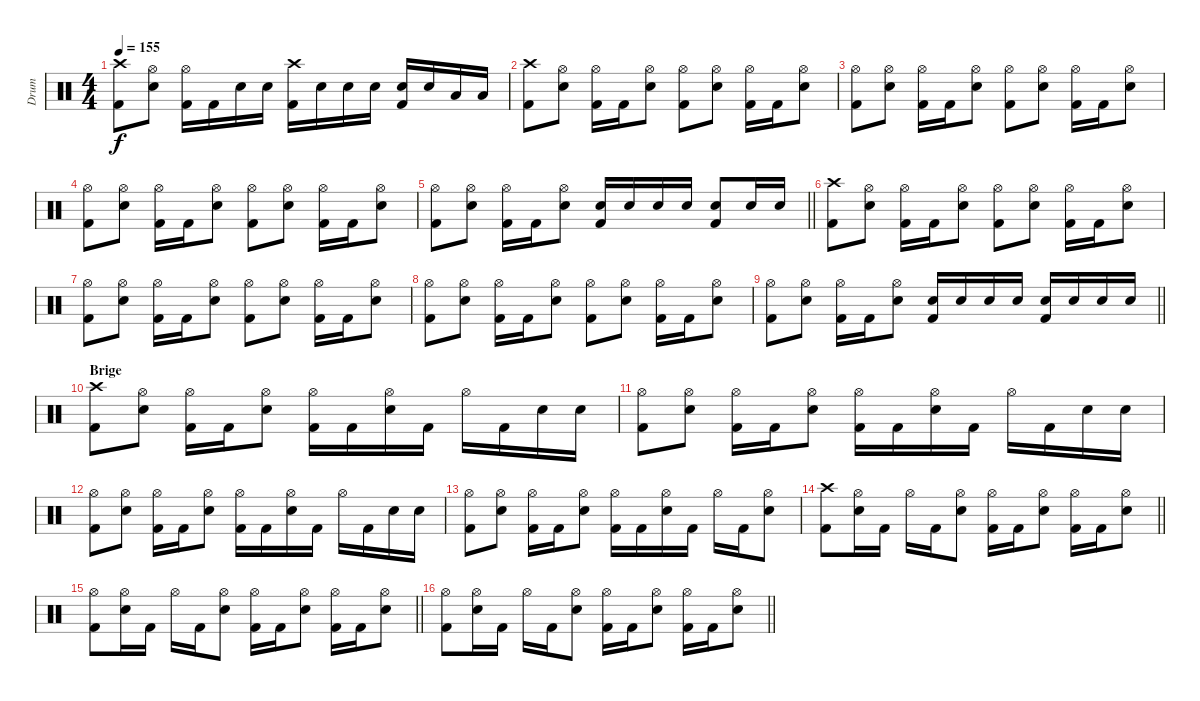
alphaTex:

\track ("Drum" "Drum") {solo instrument percussion}
\staff {score}
\articulation defaults
\ts (4 4)
\tempo 155
\clef neutral
\ks c
("Crash high (hit)" "Kick (hit) 2").8{dy f} ("Hi-Hat (open)" "Electric Snare (hit)").8 ("Kick (hit) 2" "Hi-Hat (open)").16 "Kick (hit) 2".16 "Electric Snare (hit)".16 "Electric Snare (hit)".16 ("Crash high (hit)" "Kick (hit) 2").16 "Electric Snare (hit)".16 "Electric Snare (hit)".16 "Electric Snare (hit)".16 ("Electric Snare (hit)" "Kick (hit) 2").16 "Electric Snare (hit)".16 "Low Tom (hit)".16 "Low Tom (hit)".16 |
("Crash high (hit)" "Kick (hit) 2").8 ("Hi-Hat (open)" "Electric Snare (hit)").8 ("Hi-Hat (open)" "Kick (hit) 2").16 "Kick (hit) 2".16 ("Hi-Hat (open)" "Electric Snare (hit)").8 ("Hi-Hat (open)" "Kick (hit) 2").8 ("Hi-Hat (open)" "Electric Snare (hit)").8 ("Kick (hit) 2" "Hi-Hat (open)").16 "Kick (hit) 2".16 ("Hi-Hat (open)" "Electric Snare (hit)").8 |
("Hi-Hat (open)" "Kick (hit) 2").8 ("Hi-Hat (open)" "Electric Snare (hit)").8 ("Hi-Hat (open)" "Kick (hit) 2").16 "Kick (hit) 2".16 ("Hi-Hat (open)" "Electric Snare (hit)").8 ("Hi-Hat (open)" "Kick (hit) 2").8 ("Hi-Hat (open)" "Electric Snare (hit)").8 ("Kick (hit) 2" "Hi-Hat (open)").16 "Kick (hit) 2".16 ("Hi-Hat (open)" "Electric Snare (hit)").8 |
("Hi-Hat (open)" "Kick (hit) 2").8 ("Hi-Hat (open)" "Electric Snare (hit)").8 ("Hi-Hat (open)" "Kick (hit) 2").16 "Kick (hit) 2".16 ("Hi-Hat (open)" "Electric Snare (hit)").8 ("Hi-Hat (open)" "Kick (hit) 2").8 ("Hi-Hat (open)" "Electric Snare (hit)").8 ("Kick (hit) 2" "Hi-Hat (open)").16 "Kick (hit) 2".16 ("Hi-Hat (open)" "Electric Snare (hit)").8 |
\barLineRight lightlight
("Hi-Hat (open)" "Kick (hit) 2").8 ("Hi-Hat (open)" "Electric Snare (hit)").8 ("Kick (hit) 2" "Hi-Hat (open)").16 "Kick (hit) 2".16 ("Hi-Hat (open)" "Electric Snare (hit)").8 ("Electric Snare (hit)" "Kick (hit) 2").16 "Electric Snare (hit)".16 "Electric Snare (hit)".16 "Electric Snare (hit)".16 ("Electric Snare (hit)" "Kick (hit) 2").8 "Electric Snare (hit)".16 "Electric Snare (hit)".16 |
("Crash high (hit)" "Kick (hit) 2").8 ("Hi-Hat (open)" "Electric Snare (hit)").8 ("Hi-Hat (open)" "Kick (hit) 2").16 "Kick (hit) 2".16 ("Hi-Hat (open)" "Electric Snare (hit)").8 ("Hi-Hat (open)" "Kick (hit) 2").8 ("Hi-Hat (open)" "Electric Snare (hit)").8 ("Kick (hit) 2" "Hi-Hat (open)").16 "Kick (hit) 2".16 ("Hi-Hat (open)" "Electric Snare (hit)").8 |
("Hi-Hat (open)" "Kick (hit) 2").8 ("Hi-Hat (open)" "Electric Snare (hit)").8 ("Hi-Hat (open)" "Kick (hit) 2").16 "Kick (hit) 2".16 ("Hi-Hat (open)" "Electric Snare (hit)").8 ("Hi-Hat (open)" "Kick (hit) 2").8 ("Hi-Hat (open)" "Electric Snare (hit)").8 ("Kick (hit) 2" "Hi-Hat (open)").16 "Kick (hit) 2".16 ("Hi-Hat (open)" "Electric Snare (hit)").8 |
("Hi-Hat (open)" "Kick (hit) 2").8 ("Hi-Hat (open)" "Electric Snare (hit)").8 ("Hi-Hat (open)" "Kick (hit) 2").16 "Kick (hit) 2".16 ("Hi-Hat (open)" "Electric Snare (hit)").8 ("Hi-Hat (open)" "Kick (hit) 2").8 ("Hi-Hat (open)" "Electric Snare (hit)").8 ("Kick (hit) 2" "Hi-Hat (open)").16 "Kick (hit) 2".16 ("Hi-Hat (open)" "Electric Snare (hit)").8 |
\barLineRight lightlight
("Hi-Hat (open)" "Kick (hit) 2").8 ("Hi-Hat (open)" "Electric Snare (hit)").8 ("Kick (hit) 2" "Hi-Hat (open)").16 "Kick (hit) 2".16 ("Hi-Hat (open)" "Electric Snare (hit)").8 ("Electric Snare (hit)" "Kick (hit) 2").16 "Electric Snare (hit)".16 "Electric Snare (hit)".16 "Electric Snare (hit)".16 ("Electric Snare (hit)" "Kick (hit) 2").16 "Electric Snare (hit)".16 "Electric Snare (hit)".16 "Electric Snare (hit)".16 |
\section ("" "Brige")
("Crash high (hit)" "Kick (hit) 2").8 ("Hi-Hat (open)" "Electric Snare (hit)").8 ("Kick (hit) 2" "Hi-Hat (open)").16 "Kick (hit) 2".16 ("Hi-Hat (open)" "Electric Snare (hit)").8 ("Kick (hit) 2" "Hi-Hat (open)").16 "Kick (hit) 2".16 ("Electric Snare (hit)" "Hi-Hat (open)").16 "Kick (hit) 2".16 "Hi-Hat (open)".16 "Kick (hit) 2".16 "Electric Snare (hit)".16 "Electric Snare (hit)".16 |
("Hi-Hat (open)" "Kick (hit) 2").8 ("Hi-Hat (open)" "Electric Snare (hit)").8 ("Kick (hit) 2" "Hi-Hat (open)").16 "Kick (hit) 2".16 ("Hi-Hat (open)" "Electric Snare (hit)").8 ("Kick (hit) 2" "Hi-Hat (open)").16 "Kick (hit) 2".16 ("Electric Snare (hit)" "Hi-Hat (open)").16 "Kick (hit) 2".16 "Hi-Hat (open)".16 "Kick (hit) 2".16 "Electric Snare (hit)".16 "Electric Snare (hit)".16 |
("Hi-Hat (open)" "Kick (hit) 2").8 ("Hi-Hat (open)" "Electric Snare (hit)").8 ("Kick (hit) 2" "Hi-Hat (open)").16 "Kick (hit) 2".16 ("Hi-Hat (open)" "Electric Snare (hit)").8 ("Kick (hit) 2" "Hi-Hat (open)").16 "Kick (hit) 2".16 ("Electric Snare (hit)" "Hi-Hat (open)").16 "Kick (hit) 2".16 "Hi-Hat (open)".16 "Kick (hit) 2".16 "Electric Snare (hit)".16 "Electric Snare (hit)".16 |
("Hi-Hat (open)" "Kick (hit) 2").8 ("Hi-Hat (open)" "Electric Snare (hit)").8 ("Kick (hit) 2" "Hi-Hat (open)").16 "Kick (hit) 2".16 ("Hi-Hat (open)" "Electric Snare (hit)").8 ("Kick (hit) 2" "Hi-Hat (open)").16 "Kick (hit) 2".16 ("Electric Snare (hit)" "Hi-Hat (open)").16 "Kick (hit) 2".16 "Hi-Hat (open)".16 "Kick (hit) 2".16 ("Hi-Hat (open)" "Electric Snare (hit)").8 |
\barLineRight lightlight
("Crash high (hit)" "Kick (hit) 2").8 ("Hi-Hat (open)" "Electric Snare (hit)").16 "Kick (hit) 2".16 "Hi-Hat (open)".16 "Kick (hit) 2".16 ("Hi-Hat (open)" "Electric Snare (hit)").8 ("Hi-Hat (open)" "Kick (hit) 2").16 "Kick (hit) 2".16 ("Hi-Hat (open)" "Electric Snare (hit)").8 ("Kick (hit) 2" "Hi-Hat (open)").16 "Kick (hit) 2".16 ("Hi-Hat (open)" "Electric Snare (hit)").8 |
\barLineRight lightlight
("Hi-Hat (open)" "Kick (hit) 2").8 ("Hi-Hat (open)" "Electric Snare (hit)").16 "Kick (hit) 2".16 "Hi-Hat (open)".16 "Kick (hit) 2".16 ("Hi-Hat (open)" "Electric Snare (hit)").8 ("Hi-Hat (open)" "Kick (hit) 2").16 "Kick (hit) 2".16 ("Hi-Hat (open)" "Electric Snare (hit)").8 ("Kick (hit) 2" "Hi-Hat (open)").16 "Kick (hit) 2".16 ("Hi-Hat (open)" "Electric Snare (hit)").8 |
\barLineRight lightlight
("Hi-Hat (open)" "Kick (hit) 2").8 ("Hi-Hat (open)" "Electric Snare (hit)").16 "Kick (hit) 2".16 "Hi-Hat (open)".16 "Kick (hit) 2".16 ("Hi-Hat (open)" "Electric Snare (hit)").8 ("Hi-Hat (open)" "Kick (hit) 2").16 "Kick (hit) 2".16 ("Hi-Hat (open)" "Electric Snare (hit)").8 ("Kick (hit) 2" "Hi-Hat (open)").16 "Kick (hit) 2".16 ("Hi-Hat (open)" "Electric Snare (hit)").8
